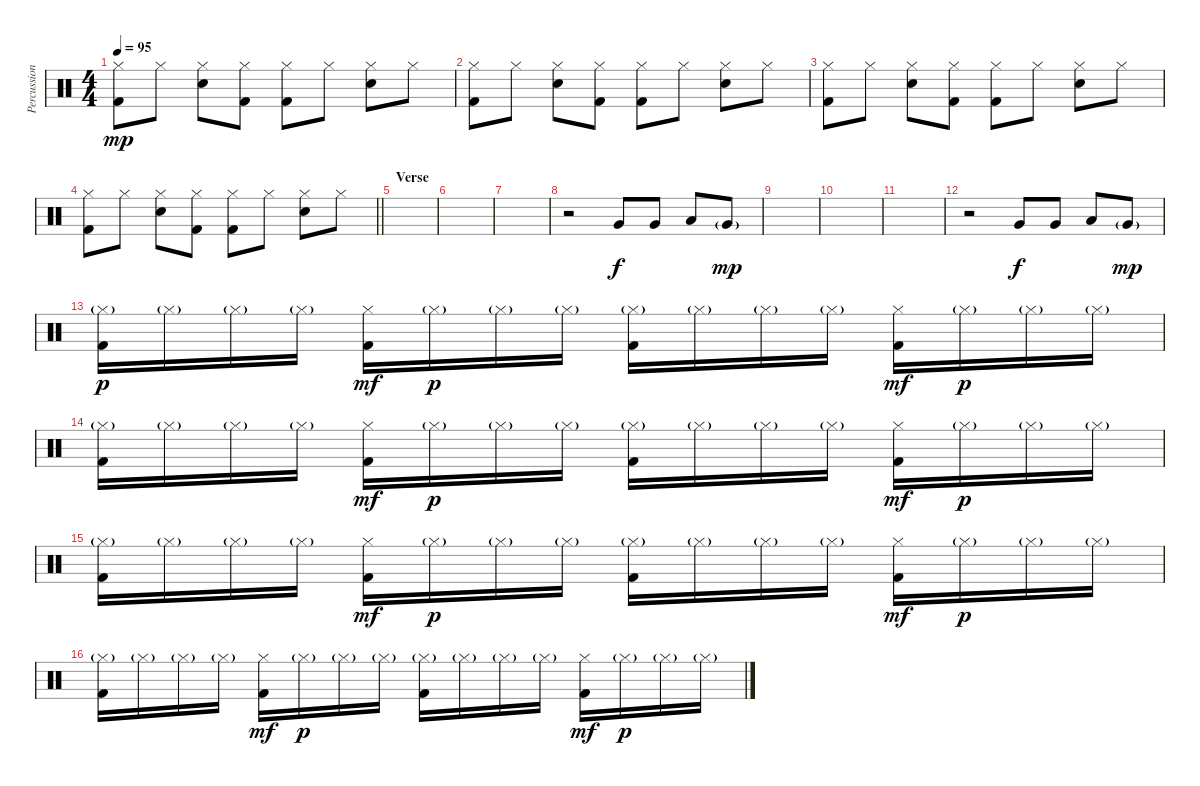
\track ("Percussioni" "Percussion") {instrument percussion}
\staff {score}
\articulation defaults
\ts (4 4)
\tempo 95
\clef neutral
\ks c
("Hi-Hat (closed)" "Kick (hit) 2").8{dy mp} "Hi-Hat (closed)".8 ("Hi-Hat (closed)" "Snare (hit) 2").8 ("Hi-Hat (closed)" "Kick (hit) 2").8 ("Hi-Hat (closed)" "Kick (hit) 2").8 "Hi-Hat (closed)".8 ("Hi-Hat (closed)" "Snare (hit) 2").8 "Hi-Hat (closed)".8 |
("Hi-Hat (closed)" "Kick (hit) 2").8 "Hi-Hat (closed)".8 ("Hi-Hat (closed)" "Snare (hit) 2").8 ("Hi-Hat (closed)" "Kick (hit) 2").8 ("Hi-Hat (closed)" "Kick (hit) 2").8 "Hi-Hat (closed)".8 ("Hi-Hat (closed)" "Snare (hit) 2").8 "Hi-Hat (closed)".8 |
("Hi-Hat (closed)" "Kick (hit) 2").8 "Hi-Hat (closed)".8 ("Hi-Hat (closed)" "Snare (hit) 2").8 ("Hi-Hat (closed)" "Kick (hit) 2").8 ("Hi-Hat (closed)" "Kick (hit) 2").8 "Hi-Hat (closed)".8 ("Hi-Hat (closed)" "Snare (hit) 2").8 "Hi-Hat (closed)".8 |
\barLineRight lightlight
("Hi-Hat (closed)" "Kick (hit) 2").8 "Hi-Hat (closed)".8 ("Hi-Hat (closed)" "Snare (hit) 2").8 ("Hi-Hat (closed)" "Kick (hit) 2").8 ("Hi-Hat (closed)" "Kick (hit) 2").8 "Hi-Hat (closed)".8 ("Hi-Hat (closed)" "Snare (hit) 2").8 "Hi-Hat (closed)".8 |
\section ("" "Verse")
|
|
|
r.2 "Very Low Tom (hit)".8{dy f} "Very Low Tom (hit)".8 "Low Tom (hit)".8 "Very Low Tom (hit)"{g}.8{dy mp} |
|
|
|
r.2 "Very Low Tom (hit)".8{dy f} "Very Low Tom (hit)".8 "Low Tom (hit)".8 "Very Low Tom (hit)"{g}.8{dy mp} |
("Hi-Hat (closed)"{g} "Kick (hit) 2").16{dy p} "Hi-Hat (closed)"{g}.16 "Hi-Hat (closed)"{g}.16 "Hi-Hat (closed)"{g}.16 ("Hi-Hat (closed)" "Kick (hit) 2").16{dy mf} "Hi-Hat (closed)"{g}.16{dy p} "Hi-Hat (closed)"{g}.16 "Hi-Hat (closed)"{g}.16 ("Hi-Hat (closed)"{g} "Kick (hit) 2").16 "Hi-Hat (closed)"{g}.16 "Hi-Hat (closed)"{g}.16 "Hi-Hat (closed)"{g}.16 ("Hi-Hat (closed)" "Kick (hit) 2").16{dy mf} "Hi-Hat (closed)"{g}.16{dy p} "Hi-Hat (closed)"{g}.16 "Hi-Hat (closed)"{g}.16 |
("Hi-Hat (closed)"{g} "Kick (hit) 2").16 "Hi-Hat (closed)"{g}.16 "Hi-Hat (closed)"{g}.16 "Hi-Hat (closed)"{g}.16 ("Hi-Hat (closed)" "Kick (hit) 2").16{dy mf} "Hi-Hat (closed)"{g}.16{dy p} "Hi-Hat (closed)"{g}.16 "Hi-Hat (closed)"{g}.16 ("Hi-Hat (closed)"{g} "Kick (hit) 2").16 "Hi-Hat (closed)"{g}.16 "Hi-Hat (closed)"{g}.16 "Hi-Hat (closed)"{g}.16 ("Hi-Hat (closed)" "Kick (hit) 2").16{dy mf} "Hi-Hat (closed)"{g}.16{dy p} "Hi-Hat (closed)"{g}.16 "Hi-Hat (closed)"{g}.16 |
("Hi-Hat (closed)"{g} "Kick (hit) 2").16 "Hi-Hat (closed)"{g}.16 "Hi-Hat (closed)"{g}.16 "Hi-Hat (closed)"{g}.16 ("Hi-Hat (closed)" "Kick (hit) 2").16{dy mf} "Hi-Hat (closed)"{g}.16{dy p} "Hi-Hat (closed)"{g}.16 "Hi-Hat (closed)"{g}.16 ("Hi-Hat (closed)"{g} "Kick (hit) 2").16 "Hi-Hat (closed)"{g}.16 "Hi-Hat (closed)"{g}.16 "Hi-Hat (closed)"{g}.16 ("Hi-Hat (closed)" "Kick (hit) 2").16{dy mf} "Hi-Hat (closed)"{g}.16{dy p} "Hi-Hat (closed)"{g}.16 "Hi-Hat (closed)"{g}.16 |
("Hi-Hat (closed)"{g} "Kick (hit) 2").16 "Hi-Hat (closed)"{g}.16 "Hi-Hat (closed)"{g}.16 "Hi-Hat (closed)"{g}.16 ("Hi-Hat (closed)" "Kick (hit) 2").16{dy mf} "Hi-Hat (closed)"{g}.16{dy p} "Hi-Hat (closed)"{g}.16 "Hi-Hat (closed)"{g}.16 ("Hi-Hat (closed)"{g} "Kick (hit) 2").16 "Hi-Hat (closed)"{g}.16 "Hi-Hat (closed)"{g}.16 "Hi-Hat (closed)"{g}.16 ("Hi-Hat (closed)" "Kick (hit) 2").16{dy mf} "Hi-Hat (closed)"{g}.16{dy p} "Hi-Hat (closed)"{g}.16 "Hi-Hat (closed)"{g}.16
